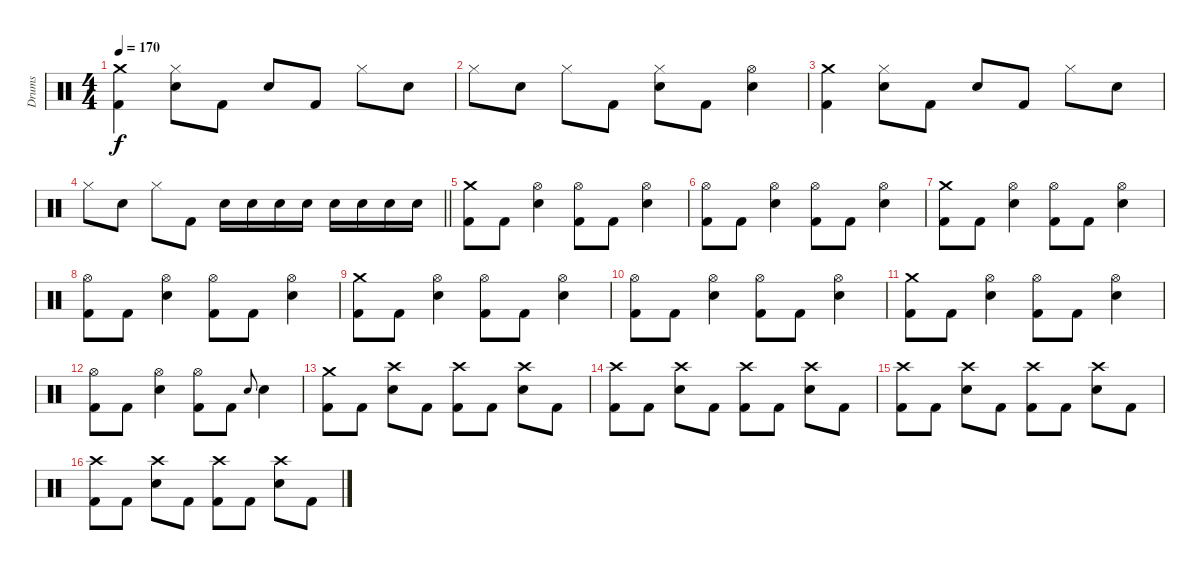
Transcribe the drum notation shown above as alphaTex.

\track ("Drums" "Drums") {instrument percussion}
\staff {score}
\articulation defaults
\ts (4 4)
\tempo 170
\clef neutral
\ks c
("Crash medium (hit)" "Kick (hit) 2").4{dy f} ("Hi-Hat (closed)" "Snare (hit) 2").8 "Kick (hit) 2".8 "Snare (hit) 2".8 "Kick (hit) 2".8 "Hi-Hat (closed)".8 "Snare (hit) 2".8 |
"Hi-Hat (closed)".8 "Snare (hit) 2".8 "Hi-Hat (closed)".8 "Kick (hit) 2".8 ("Hi-Hat (closed)" "Snare (hit) 2").8 "Kick (hit) 2".8 ("Hi-Hat (open)" "Snare (hit) 2").4 |
("Crash medium (hit)" "Kick (hit) 2").4 ("Hi-Hat (closed)" "Snare (hit) 2").8 "Kick (hit) 2".8 "Snare (hit) 2".8 "Kick (hit) 2".8 "Hi-Hat (closed)".8 "Snare (hit) 2".8 |
\barLineRight lightlight "Hi-Hat (closed)".8 "Snare (hit) 2".8 "Hi-Hat (closed)".8 "Kick (hit) 2".8 "Snare (hit) 2".16 "Snare (hit) 2".16 "Snare (hit) 2".16 "Snare (hit) 2".16 "Snare (hit) 2".16 "Snare (hit) 2".16 "Snare (hit) 2".16 "Snare (hit) 2".16
|
("Crash medium (hit)" "Kick (hit) 2").8 "Kick (hit) 2".8 ("Hi-Hat (open)" "Snare (hit) 2").4 ("Hi-Hat (open)" "Kick (hit) 2").8 "Kick (hit) 2".8 ("Hi-Hat (open)" "Snare (hit) 2").4 |
("Hi-Hat (open)" "Kick (hit) 2").8 "Kick (hit) 2".8 ("Hi-Hat (open)" "Snare (hit) 2").4 ("Hi-Hat (open)" "Kick (hit) 2").8 "Kick (hit) 2".8 ("Hi-Hat (open)" "Snare (hit) 2").4 |
("Crash medium (hit)" "Kick (hit) 2").8 "Kick (hit) 2".8 ("Hi-Hat (open)" "Snare (hit) 2").4 ("Hi-Hat (open)" "Kick (hit) 2").8 "Kick (hit) 2".8 ("Hi-Hat (open)" "Snare (hit) 2").4 |
("Hi-Hat (open)" "Kick (hit) 2").8 "Kick (hit) 2".8 ("Hi-Hat (open)" "Snare (hit) 2").4 ("Hi-Hat (open)" "Kick (hit) 2").8 "Kick (hit) 2".8 ("Hi-Hat (open)" "Snare (hit) 2").4 |
("Crash medium (hit)" "Kick (hit) 2").8 "Kick (hit) 2".8 ("Hi-Hat (open)" "Snare (hit) 2").4 ("Hi-Hat (open)" "Kick (hit) 2").8 "Kick (hit) 2".8 ("Hi-Hat (open)" "Snare (hit) 2").4 |
("Hi-Hat (open)" "Kick (hit) 2").8 "Kick (hit) 2".8 ("Hi-Hat (open)" "Snare (hit) 2").4 ("Hi-Hat (open)" "Kick (hit) 2").8 "Kick (hit) 2".8 ("Hi-Hat (open)" "Snare (hit) 2").4 |
("Crash medium (hit)" "Kick (hit) 2").8 "Kick (hit) 2".8 ("Hi-Hat (open)" "Snare (hit) 2").4 ("Hi-Hat (open)" "Kick (hit) 2").8 "Kick (hit) 2".8 ("Hi-Hat (open)" "Snare (hit) 2").4 |
("Hi-Hat (open)" "Kick (hit) 2").8 "Kick (hit) 2".8 ("Hi-Hat (open)" "Snare (hit) 2").4 ("Hi-Hat (open)" "Kick (hit) 2").8 "Kick (hit) 2".8 "Snare (hit) 2".8{gr onbeat} "Snare (hit) 2".4 |
("Crash medium (hit)" "Kick (hit) 2").8 "Kick (hit) 2".8 ("Crash high (hit)" "Snare (hit) 2").8 "Kick (hit) 2".8 ("Crash high (hit)" "Kick (hit) 2").8 "Kick (hit) 2".8 ("Crash high (hit)" "Snare (hit) 2").8 "Kick (hit) 2".8 |
("Crash high (hit)" "Kick (hit) 2").8 "Kick (hit) 2".8 ("Crash high (hit)" "Snare (hit) 2").8 "Kick (hit) 2".8 ("Crash high (hit)" "Kick (hit) 2").8 "Kick (hit) 2".8 ("Crash high (hit)" "Snare (hit) 2").8 "Kick (hit) 2".8 |
("Crash high (hit)" "Kick (hit) 2").8 "Kick (hit) 2".8 ("Crash high (hit)" "Snare (hit) 2").8 "Kick (hit) 2".8 ("Crash high (hit)" "Kick (hit) 2").8 "Kick (hit) 2".8 ("Crash high (hit)" "Snare (hit) 2").8 "Kick (hit) 2".8 |
("Crash high (hit)" "Kick (hit) 2").8 "Kick (hit) 2".8 ("Crash high (hit)" "Snare (hit) 2").8 "Kick (hit) 2".8 ("Crash high (hit)" "Kick (hit) 2").8 "Kick (hit) 2".8 ("Crash high (hit)" "Snare (hit) 2").8 "Kick (hit) 2".8
